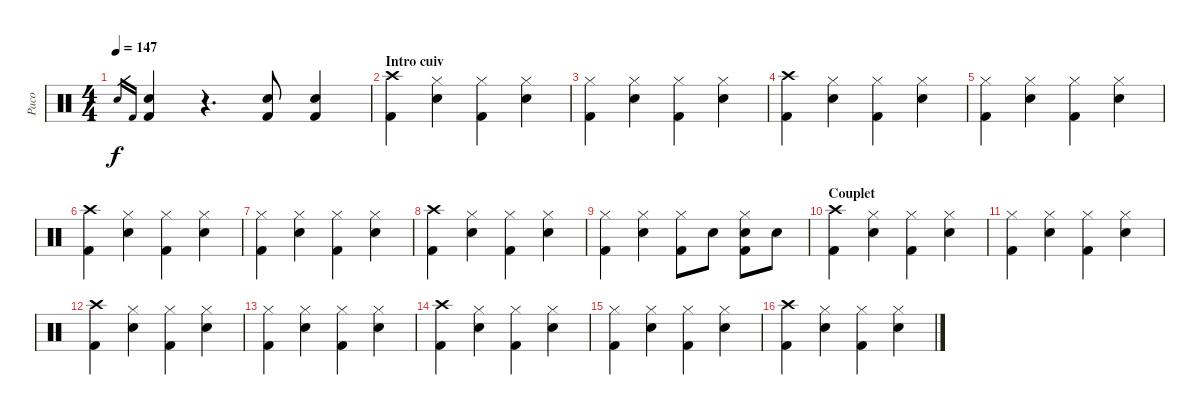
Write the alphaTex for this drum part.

\track ("Paco" "Paco") {instrument percussion}
\staff {score}
\articulation defaults
\ts (4 4)
\tempo 147
\clef neutral
\ks c "Snare (hit) 2".16{gr dy f} "Kick (hit) 2".16{gr}
("Snare (hit) 2" "Kick (hit) 2").4 r.4{d} ("Snare (hit) 2" "Kick (hit) 2").8 ("Snare (hit) 2" "Kick (hit) 2").4 |
\section ("" "Intro cuiv")
("Crash high (hit)" "Kick (hit) 2").4 ("Hi-Hat (closed)" "Snare (hit) 2").4 ("Hi-Hat (closed)" "Kick (hit) 2").4 ("Hi-Hat (closed)" "Snare (hit) 2").4 |
("Hi-Hat (closed)" "Kick (hit) 2").4 ("Hi-Hat (closed)" "Snare (hit) 2").4 ("Hi-Hat (closed)" "Kick (hit) 2").4 ("Hi-Hat (closed)" "Snare (hit) 2").4 |
("Crash high (hit)" "Kick (hit) 2").4 ("Hi-Hat (closed)" "Snare (hit) 2").4 ("Hi-Hat (closed)" "Kick (hit) 2").4 ("Hi-Hat (closed)" "Snare (hit) 2").4 |
("Hi-Hat (closed)" "Kick (hit) 2").4 ("Hi-Hat (closed)" "Snare (hit) 2").4 ("Hi-Hat (closed)" "Kick (hit) 2").4 ("Hi-Hat (closed)" "Snare (hit) 2").4 |
("Crash high (hit)" "Kick (hit) 2").4 ("Hi-Hat (closed)" "Snare (hit) 2").4 ("Hi-Hat (closed)" "Kick (hit) 2").4 ("Hi-Hat (closed)" "Snare (hit) 2").4 |
("Hi-Hat (closed)" "Kick (hit) 2").4 ("Hi-Hat (closed)" "Snare (hit) 2").4 ("Hi-Hat (closed)" "Kick (hit) 2").4 ("Hi-Hat (closed)" "Snare (hit) 2").4 |
("Crash high (hit)" "Kick (hit) 2").4 ("Hi-Hat (closed)" "Snare (hit) 2").4 ("Hi-Hat (closed)" "Kick (hit) 2").4 ("Hi-Hat (closed)" "Snare (hit) 2").4 |
("Hi-Hat (closed)" "Kick (hit) 2").4 ("Hi-Hat (closed)" "Snare (hit) 2").4 ("Hi-Hat (closed)" "Kick (hit) 2").8 "Snare (hit) 2".8 ("Hi-Hat (closed)" "Snare (hit) 2" "Kick (hit) 2").8 "Snare (hit) 2".8 |
\section ("" "Couplet")
("Crash high (hit)" "Kick (hit) 2").4 ("Hi-Hat (closed)" "Snare (hit) 2").4 ("Hi-Hat (closed)" "Kick (hit) 2").4 ("Hi-Hat (closed)" "Snare (hit) 2").4 |
("Hi-Hat (closed)" "Kick (hit) 2").4 ("Hi-Hat (closed)" "Snare (hit) 2").4 ("Hi-Hat (closed)" "Kick (hit) 2").4 ("Hi-Hat (closed)" "Snare (hit) 2").4 |
("Crash high (hit)" "Kick (hit) 2").4 ("Hi-Hat (closed)" "Snare (hit) 2").4 ("Hi-Hat (closed)" "Kick (hit) 2").4 ("Hi-Hat (closed)" "Snare (hit) 2").4 |
("Hi-Hat (closed)" "Kick (hit) 2").4 ("Hi-Hat (closed)" "Snare (hit) 2").4 ("Hi-Hat (closed)" "Kick (hit) 2").4 ("Hi-Hat (closed)" "Snare (hit) 2").4 |
("Crash high (hit)" "Kick (hit) 2").4 ("Hi-Hat (closed)" "Snare (hit) 2").4 ("Hi-Hat (closed)" "Kick (hit) 2").4 ("Hi-Hat (closed)" "Snare (hit) 2").4 |
("Hi-Hat (closed)" "Kick (hit) 2").4 ("Hi-Hat (closed)" "Snare (hit) 2").4 ("Hi-Hat (closed)" "Kick (hit) 2").4 ("Hi-Hat (closed)" "Snare (hit) 2").4 |
("Crash high (hit)" "Kick (hit) 2").4 ("Hi-Hat (closed)" "Snare (hit) 2").4 ("Hi-Hat (closed)" "Kick (hit) 2").4 ("Hi-Hat (closed)" "Snare (hit) 2").4
